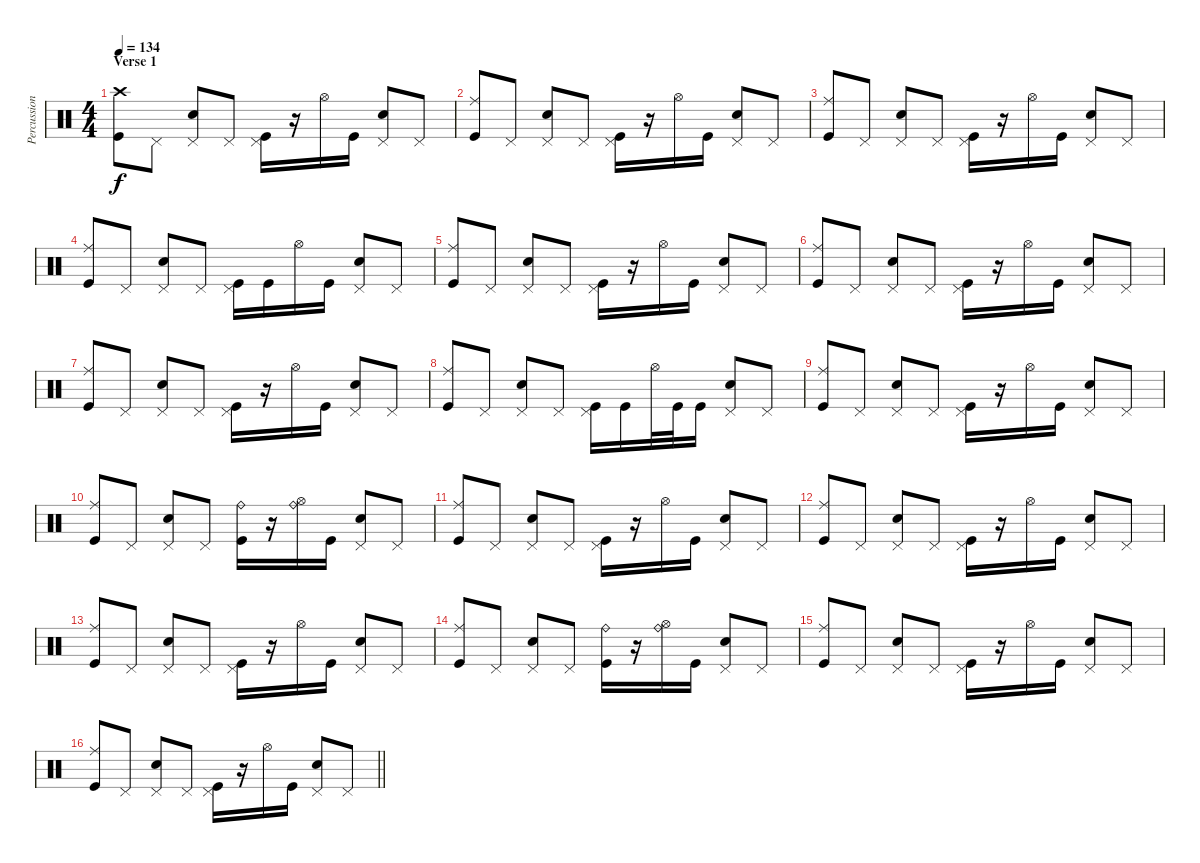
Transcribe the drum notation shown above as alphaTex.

\track ("Percussion" "Percussion") {instrument percussion}
\staff {score}
\articulation defaults
\ts (4 4)
\section ("" "Verse 1")
\tempo 134
\clef neutral
\ks c
("Crash high (hit)" "Kick (hit)").8{dy f} "Pedal Hi-Hat (hit)".8 ("Pedal Hi-Hat (hit)" "Electric Snare (hit)").8 "Pedal Hi-Hat (hit)".8 ("Pedal Hi-Hat (hit)" "Kick (hit)").16 r.16 "Hi-Hat (open)".16 "Kick (hit)".16 ("Pedal Hi-Hat (hit)" "Electric Snare (hit)").8 "Pedal Hi-Hat (hit)".8 |
("Ride (middle)" "Kick (hit)").8 "Pedal Hi-Hat (hit)".8 ("Pedal Hi-Hat (hit)" "Electric Snare (hit)").8 "Pedal Hi-Hat (hit)".8 ("Pedal Hi-Hat (hit)" "Kick (hit)").16 r.16 "Hi-Hat (open)".16 "Kick (hit)".16 ("Pedal Hi-Hat (hit)" "Electric Snare (hit)").8 "Pedal Hi-Hat (hit)".8 |
("Ride (middle)" "Kick (hit)").8 "Pedal Hi-Hat (hit)".8 ("Pedal Hi-Hat (hit)" "Electric Snare (hit)").8 "Pedal Hi-Hat (hit)".8 ("Pedal Hi-Hat (hit)" "Kick (hit)").16 r.16 "Hi-Hat (open)".16 "Kick (hit)".16 ("Pedal Hi-Hat (hit)" "Electric Snare (hit)").8 "Pedal Hi-Hat (hit)".8 |
("Ride (middle)" "Kick (hit)").8 "Pedal Hi-Hat (hit)".8 ("Pedal Hi-Hat (hit)" "Electric Snare (hit)").8 "Pedal Hi-Hat (hit)".8 ("Pedal Hi-Hat (hit)" "Kick (hit)").16 "Kick (hit)".16 "Hi-Hat (open)".16 "Kick (hit)".16 ("Pedal Hi-Hat (hit)" "Electric Snare (hit)").8 "Pedal Hi-Hat (hit)".8 |
("Ride (middle)" "Kick (hit)").8 "Pedal Hi-Hat (hit)".8 ("Pedal Hi-Hat (hit)" "Electric Snare (hit)").8 "Pedal Hi-Hat (hit)".8 ("Pedal Hi-Hat (hit)" "Kick (hit)").16 r.16 "Hi-Hat (open)".16 "Kick (hit)".16 ("Pedal Hi-Hat (hit)" "Electric Snare (hit)").8 "Pedal Hi-Hat (hit)".8 |
("Ride (middle)" "Kick (hit)").8 "Pedal Hi-Hat (hit)".8 ("Pedal Hi-Hat (hit)" "Electric Snare (hit)").8 "Pedal Hi-Hat (hit)".8 ("Pedal Hi-Hat (hit)" "Kick (hit)").16 r.16 "Hi-Hat (open)".16 "Kick (hit)".16 ("Pedal Hi-Hat (hit)" "Electric Snare (hit)").8 "Pedal Hi-Hat (hit)".8 |
("Ride (middle)" "Kick (hit)").8 "Pedal Hi-Hat (hit)".8 ("Pedal Hi-Hat (hit)" "Electric Snare (hit)").8 "Pedal Hi-Hat (hit)".8 ("Pedal Hi-Hat (hit)" "Kick (hit)").16 r.16 "Hi-Hat (open)".16 "Kick (hit)".16 ("Pedal Hi-Hat (hit)" "Electric Snare (hit)").8 "Pedal Hi-Hat (hit)".8 |
("Ride (middle)" "Kick (hit)").8 "Pedal Hi-Hat (hit)".8 ("Pedal Hi-Hat (hit)" "Electric Snare (hit)").8 "Pedal Hi-Hat (hit)".8 ("Pedal Hi-Hat (hit)" "Kick (hit)").16 "Kick (hit)".16 "Hi-Hat (open)".32 "Kick (hit)".32 "Kick (hit)".16 ("Pedal Hi-Hat (hit)" "Electric Snare (hit)").8 "Pedal Hi-Hat (hit)".8 |
("Ride (middle)" "Kick (hit)").8 "Pedal Hi-Hat (hit)".8 ("Pedal Hi-Hat (hit)" "Electric Snare (hit)").8 "Pedal Hi-Hat (hit)".8 ("Pedal Hi-Hat (hit)" "Kick (hit)").16 r.16 "Hi-Hat (open)".16 "Kick (hit)".16 ("Pedal Hi-Hat (hit)" "Electric Snare (hit)").8 "Pedal Hi-Hat (hit)".8 |
("Ride (middle)" "Kick (hit)").8 "Pedal Hi-Hat (hit)".8 ("Pedal Hi-Hat (hit)" "Electric Snare (hit)").8 "Pedal Hi-Hat (hit)".8 ("Kick (hit)" "Ride (bell)").16 r.16 ("Hi-Hat (open)" "Ride (bell)").16 "Kick (hit)".16 ("Pedal Hi-Hat (hit)" "Electric Snare (hit)").8 "Pedal Hi-Hat (hit)".8 |
("Ride (middle)" "Kick (hit)").8 "Pedal Hi-Hat (hit)".8 ("Pedal Hi-Hat (hit)" "Electric Snare (hit)").8 "Pedal Hi-Hat (hit)".8 ("Pedal Hi-Hat (hit)" "Kick (hit)").16 r.16 "Hi-Hat (open)".16 "Kick (hit)".16 ("Pedal Hi-Hat (hit)" "Electric Snare (hit)").8 "Pedal Hi-Hat (hit)".8 |
("Ride (middle)" "Kick (hit)").8 "Pedal Hi-Hat (hit)".8 ("Pedal Hi-Hat (hit)" "Electric Snare (hit)").8 "Pedal Hi-Hat (hit)".8 ("Pedal Hi-Hat (hit)" "Kick (hit)").16 r.16 "Hi-Hat (open)".16 "Kick (hit)".16 ("Pedal Hi-Hat (hit)" "Electric Snare (hit)").8 "Pedal Hi-Hat (hit)".8 |
("Ride (middle)" "Kick (hit)").8 "Pedal Hi-Hat (hit)".8 ("Pedal Hi-Hat (hit)" "Electric Snare (hit)").8 "Pedal Hi-Hat (hit)".8 ("Pedal Hi-Hat (hit)" "Kick (hit)").16 r.16 "Hi-Hat (open)".16 "Kick (hit)".16 ("Pedal Hi-Hat (hit)" "Electric Snare (hit)").8 "Pedal Hi-Hat (hit)".8 |
("Ride (middle)" "Kick (hit)").8 "Pedal Hi-Hat (hit)".8 ("Pedal Hi-Hat (hit)" "Electric Snare (hit)").8 "Pedal Hi-Hat (hit)".8 ("Kick (hit)" "Ride (bell)").16 r.16 ("Hi-Hat (open)" "Ride (bell)").16 "Kick (hit)".16 ("Pedal Hi-Hat (hit)" "Electric Snare (hit)").8 "Pedal Hi-Hat (hit)".8 |
("Ride (middle)" "Kick (hit)").8 "Pedal Hi-Hat (hit)".8 ("Pedal Hi-Hat (hit)" "Electric Snare (hit)").8 "Pedal Hi-Hat (hit)".8 ("Pedal Hi-Hat (hit)" "Kick (hit)").16 r.16 "Hi-Hat (open)".16 "Kick (hit)".16 ("Pedal Hi-Hat (hit)" "Electric Snare (hit)").8 "Pedal Hi-Hat (hit)".8 |
\barLineRight lightlight
("Ride (middle)" "Kick (hit)").8 "Pedal Hi-Hat (hit)".8 ("Pedal Hi-Hat (hit)" "Electric Snare (hit)").8 "Pedal Hi-Hat (hit)".8 ("Pedal Hi-Hat (hit)" "Kick (hit)").16 r.16 "Hi-Hat (open)".16 "Kick (hit)".16 ("Pedal Hi-Hat (hit)" "Electric Snare (hit)").8 "Pedal Hi-Hat (hit)".8
